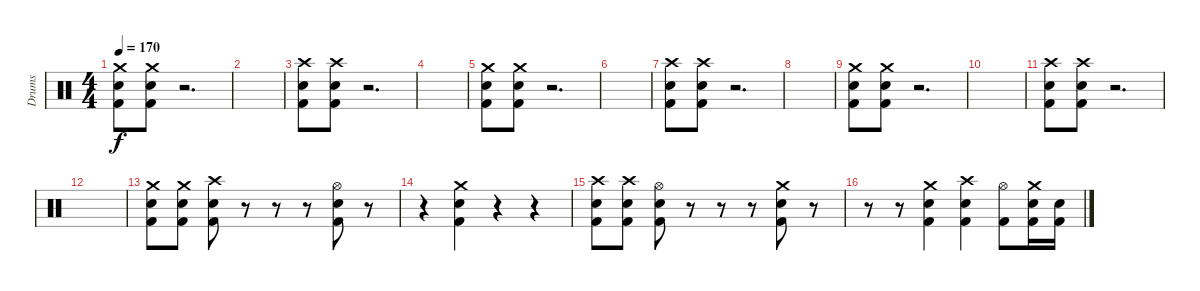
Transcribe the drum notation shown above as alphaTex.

\track ("Drums" "Drums") {instrument percussion}
\staff {score}
\articulation defaults
\ts (4 4)
\tempo 170
\clef neutral
\ks c
("Crash medium (hit)" "Snare (hit) 2" "Kick (hit) 2").8{dy f} ("Crash medium (hit)" "Snare (hit) 2" "Kick (hit) 2").8 r.2{d} |
|
("Crash high (hit)" "Snare (hit) 2" "Kick (hit) 2").8 ("Crash high (hit)" "Snare (hit) 2" "Kick (hit) 2").8 r.2{d} |
|
("Crash medium (hit)" "Snare (hit) 2" "Kick (hit) 2").8 ("Crash medium (hit)" "Snare (hit) 2" "Kick (hit) 2").8 r.2{d} |
|
("Crash high (hit)" "Snare (hit) 2" "Kick (hit) 2").8 ("Crash high (hit)" "Snare (hit) 2" "Kick (hit) 2").8 r.2{d} |
|
("Crash medium (hit)" "Snare (hit) 2" "Kick (hit) 2").8 ("Crash medium (hit)" "Snare (hit) 2" "Kick (hit) 2").8 r.2{d} |
|
("Crash high (hit)" "Snare (hit) 2" "Kick (hit) 2").8 ("Crash high (hit)" "Snare (hit) 2" "Kick (hit) 2").8 r.2{d} |
|
("Crash medium (hit)" "Snare (hit) 2" "Kick (hit) 2").8 ("Crash medium (hit)" "Snare (hit) 2" "Kick (hit) 2").8 ("Crash high (hit)" "Snare (hit) 2" "Kick (hit) 2").8 r.8 r.8 r.8 ("Hi-Hat (open)" "Snare (hit) 2" "Kick (hit) 2").8 r.8 |
r.4 ("Crash medium (hit)" "Snare (hit) 2" "Kick (hit) 2").4 r.4 r.4 |
("Crash high (hit)" "Snare (hit) 2" "Kick (hit) 2").8 ("Crash high (hit)" "Snare (hit) 2" "Kick (hit) 2").8 ("Hi-Hat (open)" "Snare (hit) 2" "Kick (hit) 2").8 r.8 r.8 r.8 ("Crash medium (hit)" "Snare (hit) 2" "Kick (hit) 2").8 r.8 |
r.8 r.8 ("Crash medium (hit)" "Snare (hit) 2" "Kick (hit) 2").4 ("Crash high (hit)" "Snare (hit) 2" "Kick (hit) 2").4 ("Hi-Hat (open)" "Kick (hit) 2").8 ("Crash medium (hit)" "Snare (hit) 2" "Kick (hit) 2").16 ("Snare (hit) 2" "Kick (hit) 2").16
